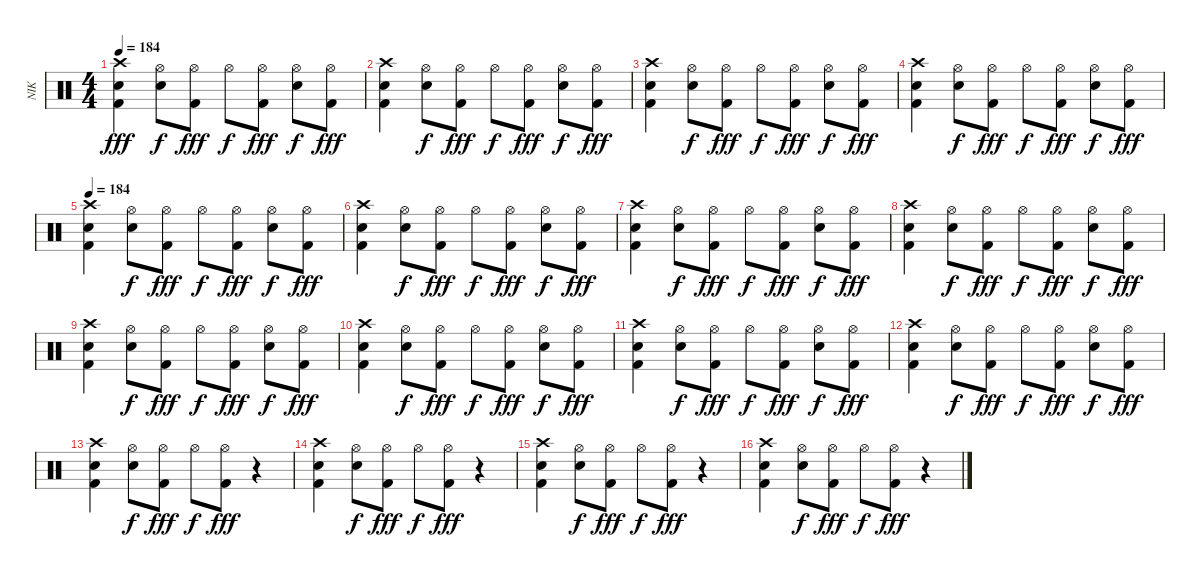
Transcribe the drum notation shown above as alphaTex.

\track ("NIK" "NIK") {instrument percussion}
\staff {score}
\articulation defaults
\ts (4 4)
\tempo 184
\clef neutral
\ks c
("Crash high (hit)" "Snare (hit) 2" "Kick (hit) 2").4{dy fff} ("Hi-Hat (open)" "Snare (hit) 2").8{dy f} ("Hi-Hat (open)" "Kick (hit) 2").8{dy fff} "Hi-Hat (open)".8{dy f} ("Hi-Hat (open)" "Kick (hit) 2").8{dy fff} ("Hi-Hat (open)" "Snare (hit) 2").8{dy f} ("Hi-Hat (open)" "Kick (hit) 2").8{dy fff} |
("Crash high (hit)" "Snare (hit) 2" "Kick (hit) 2").4 ("Hi-Hat (open)" "Snare (hit) 2").8{dy f} ("Hi-Hat (open)" "Kick (hit) 2").8{dy fff} "Hi-Hat (open)".8{dy f} ("Hi-Hat (open)" "Kick (hit) 2").8{dy fff} ("Hi-Hat (open)" "Snare (hit) 2").8{dy f} ("Hi-Hat (open)" "Kick (hit) 2").8{dy fff} |
("Crash high (hit)" "Snare (hit) 2" "Kick (hit) 2").4 ("Hi-Hat (open)" "Snare (hit) 2").8{dy f} ("Hi-Hat (open)" "Kick (hit) 2").8{dy fff} "Hi-Hat (open)".8{dy f} ("Hi-Hat (open)" "Kick (hit) 2").8{dy fff} ("Hi-Hat (open)" "Snare (hit) 2").8{dy f} ("Hi-Hat (open)" "Kick (hit) 2").8{dy fff} |
("Crash high (hit)" "Snare (hit) 2" "Kick (hit) 2").4 ("Hi-Hat (open)" "Snare (hit) 2").8{dy f} ("Hi-Hat (open)" "Kick (hit) 2").8{dy fff} "Hi-Hat (open)".8{dy f} ("Hi-Hat (open)" "Kick (hit) 2").8{dy fff} ("Hi-Hat (open)" "Snare (hit) 2").8{dy f} ("Hi-Hat (open)" "Kick (hit) 2").8{dy fff} |
\tempo 184
("Crash high (hit)" "Snare (hit) 2" "Kick (hit) 2").4 ("Hi-Hat (open)" "Snare (hit) 2").8{dy f} ("Hi-Hat (open)" "Kick (hit) 2").8{dy fff} "Hi-Hat (open)".8{dy f} ("Hi-Hat (open)" "Kick (hit) 2").8{dy fff} ("Hi-Hat (open)" "Snare (hit) 2").8{dy f} ("Hi-Hat (open)" "Kick (hit) 2").8{dy fff} |
("Crash high (hit)" "Snare (hit) 2" "Kick (hit) 2").4 ("Hi-Hat (open)" "Snare (hit) 2").8{dy f} ("Hi-Hat (open)" "Kick (hit) 2").8{dy fff} "Hi-Hat (open)".8{dy f} ("Hi-Hat (open)" "Kick (hit) 2").8{dy fff} ("Hi-Hat (open)" "Snare (hit) 2").8{dy f} ("Hi-Hat (open)" "Kick (hit) 2").8{dy fff} |
("Crash high (hit)" "Snare (hit) 2" "Kick (hit) 2").4 ("Hi-Hat (open)" "Snare (hit) 2").8{dy f} ("Hi-Hat (open)" "Kick (hit) 2").8{dy fff} "Hi-Hat (open)".8{dy f} ("Hi-Hat (open)" "Kick (hit) 2").8{dy fff} ("Hi-Hat (open)" "Snare (hit) 2").8{dy f} ("Hi-Hat (open)" "Kick (hit) 2").8{dy fff} |
("Crash high (hit)" "Snare (hit) 2" "Kick (hit) 2").4 ("Hi-Hat (open)" "Snare (hit) 2").8{dy f} ("Hi-Hat (open)" "Kick (hit) 2").8{dy fff} "Hi-Hat (open)".8{dy f} ("Hi-Hat (open)" "Kick (hit) 2").8{dy fff} ("Hi-Hat (open)" "Snare (hit) 2").8{dy f} ("Hi-Hat (open)" "Kick (hit) 2").8{dy fff} |
("Crash high (hit)" "Snare (hit) 2" "Kick (hit) 2").4 ("Hi-Hat (open)" "Snare (hit) 2").8{dy f} ("Hi-Hat (open)" "Kick (hit) 2").8{dy fff} "Hi-Hat (open)".8{dy f} ("Hi-Hat (open)" "Kick (hit) 2").8{dy fff} ("Hi-Hat (open)" "Snare (hit) 2").8{dy f} ("Hi-Hat (open)" "Kick (hit) 2").8{dy fff} |
("Crash high (hit)" "Snare (hit) 2" "Kick (hit) 2").4 ("Hi-Hat (open)" "Snare (hit) 2").8{dy f} ("Hi-Hat (open)" "Kick (hit) 2").8{dy fff} "Hi-Hat (open)".8{dy f} ("Hi-Hat (open)" "Kick (hit) 2").8{dy fff} ("Hi-Hat (open)" "Snare (hit) 2").8{dy f} ("Hi-Hat (open)" "Kick (hit) 2").8{dy fff} |
("Crash high (hit)" "Snare (hit) 2" "Kick (hit) 2").4 ("Hi-Hat (open)" "Snare (hit) 2").8{dy f} ("Hi-Hat (open)" "Kick (hit) 2").8{dy fff} "Hi-Hat (open)".8{dy f} ("Hi-Hat (open)" "Kick (hit) 2").8{dy fff} ("Hi-Hat (open)" "Snare (hit) 2").8{dy f} ("Hi-Hat (open)" "Kick (hit) 2").8{dy fff} |
("Crash high (hit)" "Snare (hit) 2" "Kick (hit) 2").4 ("Hi-Hat (open)" "Snare (hit) 2").8{dy f} ("Hi-Hat (open)" "Kick (hit) 2").8{dy fff} "Hi-Hat (open)".8{dy f} ("Hi-Hat (open)" "Kick (hit) 2").8{dy fff} ("Hi-Hat (open)" "Snare (hit) 2").8{dy f} ("Hi-Hat (open)" "Kick (hit) 2").8{dy fff} |
("Crash high (hit)" "Snare (hit) 2" "Kick (hit) 2").4 ("Hi-Hat (open)" "Snare (hit) 2").8{dy f} ("Hi-Hat (open)" "Kick (hit) 2").8{dy fff} "Hi-Hat (open)".8{dy f} ("Hi-Hat (open)" "Kick (hit) 2").8{dy fff} r.4 |
("Crash high (hit)" "Snare (hit) 2" "Kick (hit) 2").4 ("Hi-Hat (open)" "Snare (hit) 2").8{dy f} ("Hi-Hat (open)" "Kick (hit) 2").8{dy fff} "Hi-Hat (open)".8{dy f} ("Hi-Hat (open)" "Kick (hit) 2").8{dy fff} r.4 |
("Crash high (hit)" "Snare (hit) 2" "Kick (hit) 2").4 ("Hi-Hat (open)" "Snare (hit) 2").8{dy f} ("Hi-Hat (open)" "Kick (hit) 2").8{dy fff} "Hi-Hat (open)".8{dy f} ("Hi-Hat (open)" "Kick (hit) 2").8{dy fff} r.4 |
("Crash high (hit)" "Snare (hit) 2" "Kick (hit) 2").4 ("Hi-Hat (open)" "Snare (hit) 2").8{dy f} ("Hi-Hat (open)" "Kick (hit) 2").8{dy fff} "Hi-Hat (open)".8{dy f} ("Hi-Hat (open)" "Kick (hit) 2").8{dy fff} r.4
